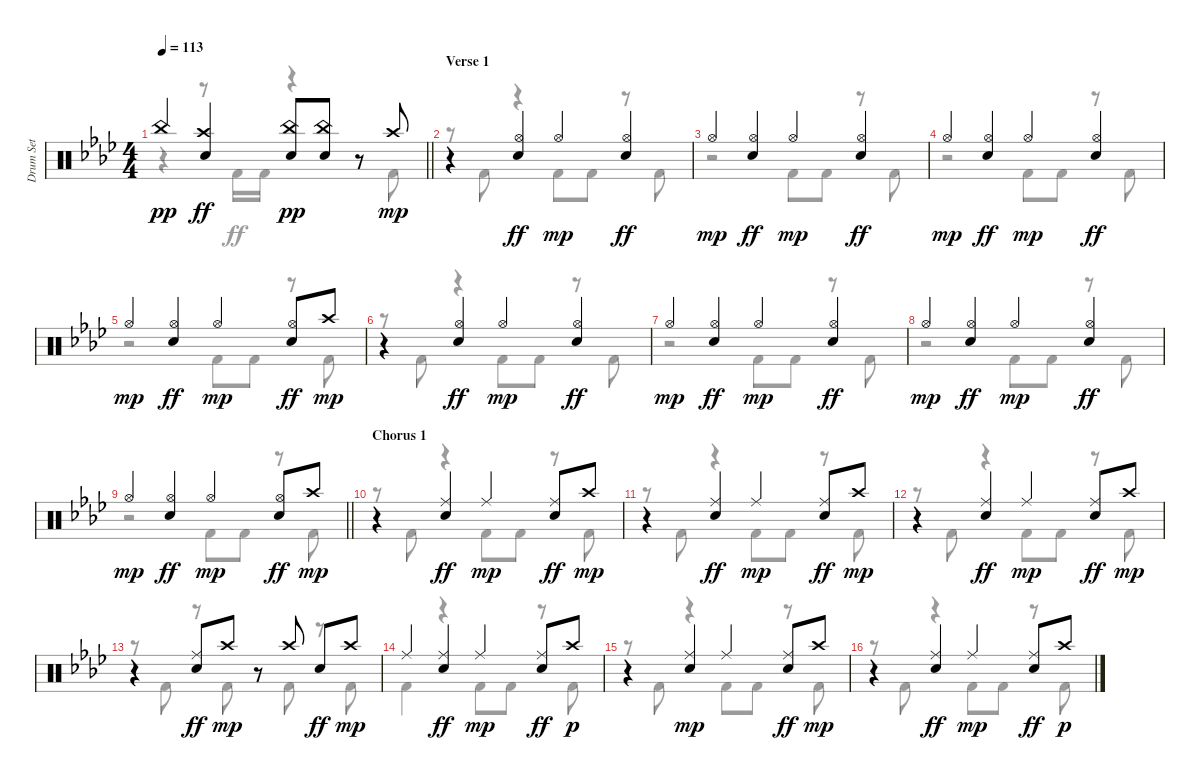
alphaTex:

\track ("Drum Set" "Drum Set") {instrument percussion}
\staff {score}
\articulation defaults
\voice
\ts (4 4)
\tempo 113
\clef neutral
\barLineRight lightlight
\ks fminor "China (hit)".4{dy pp}
("Crash high (hit)" "Electric Snare (hit)").4{dy ff} ("Electric Snare (hit)" "China (hit)").8{dy pp} ("Electric Snare (hit)" "China (hit)").8 r.8 "Crash high (hit)".8{dy mp} |
\section ("" "Verse 1")
r.4 ("Hi-Hat (open)" "Electric Snare (hit)").4{dy ff} "Hi-Hat (open)".4{dy mp} ("Hi-Hat (open)" "Electric Snare (hit)").4{dy ff} |
"Hi-Hat (open)".4{dy mp} ("Hi-Hat (open)" "Electric Snare (hit)").4{dy ff} "Hi-Hat (open)".4{dy mp} ("Hi-Hat (open)" "Electric Snare (hit)").4{dy ff} |
"Hi-Hat (open)".4{dy mp} ("Hi-Hat (open)" "Electric Snare (hit)").4{dy ff} "Hi-Hat (open)".4{dy mp} ("Hi-Hat (open)" "Electric Snare (hit)").4{dy ff} |
"Hi-Hat (open)".4{dy mp} ("Hi-Hat (open)" "Electric Snare (hit)").4{dy ff} "Hi-Hat (open)".4{dy mp} ("Hi-Hat (open)" "Electric Snare (hit)").8{dy ff} "Crash high (hit)".8{dy mp} |
r.4 ("Hi-Hat (open)" "Electric Snare (hit)").4{dy ff} "Hi-Hat (open)".4{dy mp} ("Hi-Hat (open)" "Electric Snare (hit)").4{dy ff} |
"Hi-Hat (open)".4{dy mp} ("Hi-Hat (open)" "Electric Snare (hit)").4{dy ff} "Hi-Hat (open)".4{dy mp} ("Hi-Hat (open)" "Electric Snare (hit)").4{dy ff} |
"Hi-Hat (open)".4{dy mp} ("Hi-Hat (open)" "Electric Snare (hit)").4{dy ff} "Hi-Hat (open)".4{dy mp} ("Hi-Hat (open)" "Electric Snare (hit)").4{dy ff} |
\barLineRight lightlight "Hi-Hat (open)".4{dy mp}
("Hi-Hat (open)" "Electric Snare (hit)").4{dy ff} "Hi-Hat (open)".4{dy mp} ("Hi-Hat (open)" "Electric Snare (hit)").8{dy ff} "Crash high (hit)".8{dy mp} |
\section ("" "Chorus 1")
r.4 ("Ride (middle)" "Electric Snare (hit)").4{dy ff} "Ride (middle)".4{dy mp} ("Ride (middle)" "Electric Snare (hit)").8{dy ff} "Crash high (hit)".8{dy mp} |
r.4 ("Ride (middle)" "Electric Snare (hit)").4{dy ff} "Ride (middle)".4{dy mp} ("Ride (middle)" "Electric Snare (hit)").8{dy ff} "Crash high (hit)".8{dy mp} |
r.4 ("Ride (middle)" "Electric Snare (hit)").4{dy ff} "Ride (middle)".4{dy mp} ("Ride (middle)" "Electric Snare (hit)").8{dy ff} "Crash high (hit)".8{dy mp} |
r.4 ("Ride (middle)" "Electric Snare (hit)").8{dy ff} "Crash high (hit)".8{dy mp} r.8 "Crash high (hit)".8 "Electric Snare (hit)".8{dy ff} "Crash high (hit)".8{dy mp} |
"Ride (middle)".4 ("Ride (middle)" "Electric Snare (hit)").4{dy ff} "Ride (middle)".4{dy mp} ("Ride (middle)" "Electric Snare (hit)").8{dy ff} "Crash high (hit)".8{dy p} |
r.4 ("Electric Snare (hit)" "Ride (middle)").4{dy mp} "Ride (middle)".4 ("Ride (middle)" "Electric Snare (hit)").8{dy ff} "Crash high (hit)".8{dy mp} |
r.4 ("Ride (middle)" "Electric Snare (hit)").4{dy ff} "Ride (middle)".4{dy mp} ("Ride (middle)" "Electric Snare (hit)").8{dy ff} "Crash high (hit)".8{dy p}
\voice
\clef neutral
\ottava regular
\simile none
\barLineRight lightlight
\ks fminor
r.4{dy ff} r.8 "Kick (hit) 2".16 "Kick (hit) 2".16 r.4 r.8 "Kick (hit) 2".8 |
r.8 "Kick (hit) 2".8 r.4 "Kick (hit) 2".8 "Kick (hit) 2".8 r.8 "Kick (hit) 2".8 |
r.2 "Kick (hit) 2".8 "Kick (hit) 2".8 r.8 "Kick (hit) 2".8 |
r.2 "Kick (hit) 2".8 "Kick (hit) 2".8 r.8 "Kick (hit) 2".8 |
r.2 "Kick (hit) 2".8 "Kick (hit) 2".8 r.8 "Kick (hit) 2".8 |
r.8 "Kick (hit) 2".8 r.4 "Kick (hit) 2".8 "Kick (hit) 2".8 r.8 "Kick (hit) 2".8 |
r.2 "Kick (hit) 2".8 "Kick (hit) 2".8 r.8 "Kick (hit) 2".8 |
r.2 "Kick (hit) 2".8 "Kick (hit) 2".8 r.8 "Kick (hit) 2".8 |
\barLineRight lightlight
r.2 "Kick (hit) 2".8 "Kick (hit) 2".8 r.8 "Kick (hit) 2".8 |
r.8 "Kick (hit) 2".8 r.4 "Kick (hit) 2".8 "Kick (hit) 2".8 r.8 "Kick (hit) 2".8 |
r.8 "Kick (hit) 2".8 r.4 "Kick (hit) 2".8 "Kick (hit) 2".8 r.8 "Kick (hit) 2".8 |
r.8 "Kick (hit) 2".8 r.4 "Kick (hit) 2".8 "Kick (hit) 2".8 r.8 "Kick (hit) 2".8 |
r.8 "Kick (hit) 2".8 r.8 "Kick (hit) 2".8 r.8 "Kick (hit) 2".8 r.8 "Kick (hit) 2".8 |
"Kick (hit) 2".4 r.4 "Kick (hit) 2".8 "Kick (hit) 2".8 r.8 "Kick (hit) 2".8 |
r.8 "Kick (hit) 2".8 r.4 "Kick (hit) 2".8 "Kick (hit) 2".8 r.8 "Kick (hit) 2".8 |
r.8 "Kick (hit) 2".8 r.4 "Kick (hit) 2".8 "Kick (hit) 2".8 r.8 "Kick (hit) 2".8
